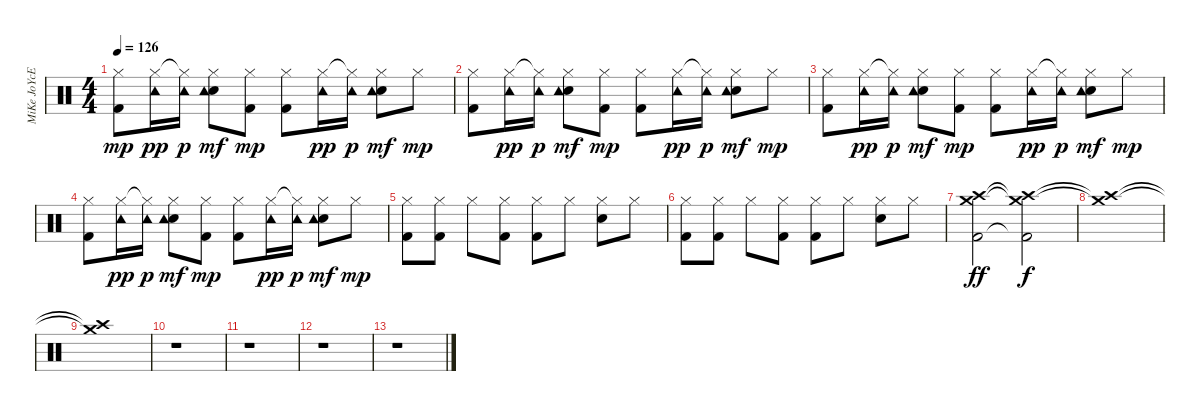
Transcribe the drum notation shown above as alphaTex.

\track ("MiKe JoYcE" "MiKe JoYcE") {instrument percussion}
\staff {score}
\articulation defaults
\ts (4 4)
\tempo 126
\clef neutral
\ks c
("Hi-Hat (closed)" "Kick (hit) 2").8{dy mp} ("Hi-Hat (closed)" "Tambourine (hit)").16{dy pp} ("Hi-Hat (closed)"{t} "Tambourine (hit)").16{dy p} ("Hi-Hat (closed)" "Electric Snare (hit)" "Tambourine (hit)").8{dy mf} ("Hi-Hat (closed)" "Kick (hit) 2").8{dy mp} ("Hi-Hat (closed)" "Kick (hit) 2").8 ("Hi-Hat (closed)" "Tambourine (hit)").16{dy pp} ("Hi-Hat (closed)"{t} "Tambourine (hit)").16{dy p} ("Hi-Hat (closed)" "Electric Snare (hit)" "Tambourine (hit)").8{dy mf} "Hi-Hat (closed)".8{dy mp} |
("Hi-Hat (closed)" "Kick (hit) 2").8 ("Hi-Hat (closed)" "Tambourine (hit)").16{dy pp} ("Hi-Hat (closed)"{t} "Tambourine (hit)").16{dy p} ("Hi-Hat (closed)" "Electric Snare (hit)" "Tambourine (hit)").8{dy mf} ("Hi-Hat (closed)" "Kick (hit) 2").8{dy mp} ("Hi-Hat (closed)" "Kick (hit) 2").8 ("Hi-Hat (closed)" "Tambourine (hit)").16{dy pp} ("Hi-Hat (closed)"{t} "Tambourine (hit)").16{dy p} ("Hi-Hat (closed)" "Electric Snare (hit)" "Tambourine (hit)").8{dy mf} "Hi-Hat (closed)".8{dy mp} |
("Hi-Hat (closed)" "Kick (hit) 2").8 ("Hi-Hat (closed)" "Tambourine (hit)").16{dy pp} ("Hi-Hat (closed)"{t} "Tambourine (hit)").16{dy p} ("Hi-Hat (closed)" "Electric Snare (hit)" "Tambourine (hit)").8{dy mf} ("Hi-Hat (closed)" "Kick (hit) 2").8{dy mp} ("Hi-Hat (closed)" "Kick (hit) 2").8 ("Hi-Hat (closed)" "Tambourine (hit)").16{dy pp} ("Hi-Hat (closed)"{t} "Tambourine (hit)").16{dy p} ("Hi-Hat (closed)" "Electric Snare (hit)" "Tambourine (hit)").8{dy mf} "Hi-Hat (closed)".8{dy mp} |
("Hi-Hat (closed)" "Kick (hit) 2").8 ("Hi-Hat (closed)" "Tambourine (hit)").16{dy pp} ("Hi-Hat (closed)"{t} "Tambourine (hit)").16{dy p} ("Hi-Hat (closed)" "Electric Snare (hit)" "Tambourine (hit)").8{dy mf} ("Hi-Hat (closed)" "Kick (hit) 2").8{dy mp} ("Hi-Hat (closed)" "Kick (hit) 2").8 ("Hi-Hat (closed)" "Tambourine (hit)").16{dy pp} ("Hi-Hat (closed)"{t} "Tambourine (hit)").16{dy p} ("Hi-Hat (closed)" "Electric Snare (hit)" "Tambourine (hit)").8{dy mf} "Hi-Hat (closed)".8{dy mp} |
("Hi-Hat (closed)" "Kick (hit) 2").8 ("Hi-Hat (closed)" "Kick (hit) 2").8 "Hi-Hat (closed)".8 ("Hi-Hat (closed)" "Kick (hit) 2").8 ("Hi-Hat (closed)" "Kick (hit) 2").8 "Hi-Hat (closed)".8 ("Hi-Hat (closed)" "Electric Snare (hit)").8 "Hi-Hat (closed)".8 |
("Hi-Hat (closed)" "Kick (hit) 2").8 ("Hi-Hat (closed)" "Kick (hit) 2").8 "Hi-Hat (closed)".8 ("Hi-Hat (closed)" "Kick (hit) 2").8 ("Hi-Hat (closed)" "Kick (hit) 2").8 "Hi-Hat (closed)".8 ("Hi-Hat (closed)" "Electric Snare (hit)").8 "Hi-Hat (closed)".8 |
("Crash high (hit)" "Crash medium (hit)" "Kick (hit) 2").2{dy ff} ("Crash high (hit)"{t} "Crash medium (hit)"{t} "Kick (hit) 2"{t}).2{dy f} |
("Crash high (hit)"{t} "Crash medium (hit)"{t}).1 |
("Crash high (hit)"{t} "Crash medium (hit)"{t}).1 |
r.1 |
r.1 |
r.1 |
r.1
